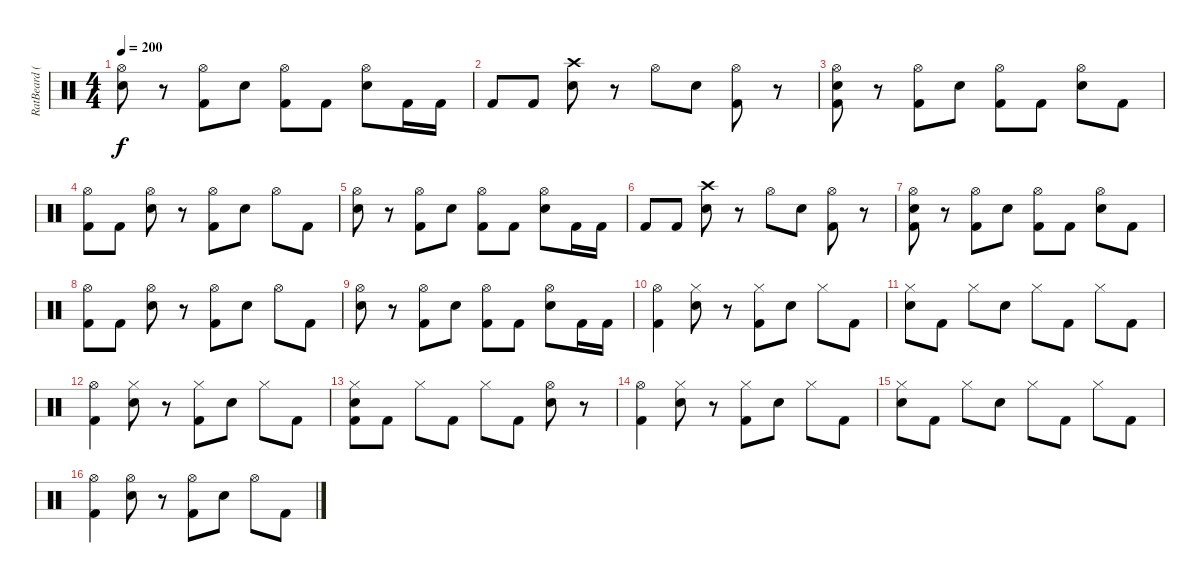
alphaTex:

\track ("RatBeard (Drum)" "RatBeard (") {instrument percussion}
\staff {score}
\articulation defaults
\ts (4 4)
\tempo 200
\clef neutral
\ks c
("Hi-Hat (open)" "Electric Snare (hit)").8{dy f} r.8 ("Hi-Hat (open)" "Kick (hit) 2").8 "Electric Snare (hit)".8 ("Hi-Hat (open)" "Kick (hit) 2").8 "Kick (hit) 2".8 ("Hi-Hat (open)" "Electric Snare (hit)").8 "Kick (hit) 2".16 "Kick (hit) 2".16 |
"Kick (hit) 2".8 "Kick (hit) 2".8 ("Crash high (hit)" "Electric Snare (hit)").8 r.8 "Hi-Hat (open)".8 "Electric Snare (hit)".8 ("Hi-Hat (open)" "Kick (hit) 2").8 r.8 |
("Hi-Hat (open)" "Electric Snare (hit)" "Kick (hit) 2").8 r.8 ("Hi-Hat (open)" "Kick (hit) 2").8 "Electric Snare (hit)".8 ("Hi-Hat (open)" "Kick (hit) 2").8 "Kick (hit) 2".8 ("Hi-Hat (open)" "Electric Snare (hit)").8 "Kick (hit) 2".8 |
("Hi-Hat (open)" "Kick (hit) 2").8 "Kick (hit) 2".8 ("Hi-Hat (open)" "Electric Snare (hit)").8 r.8 ("Hi-Hat (open)" "Kick (hit) 2").8 "Electric Snare (hit)".8 "Hi-Hat (open)".8 "Kick (hit) 2".8 |
("Hi-Hat (open)" "Electric Snare (hit)").8 r.8 ("Hi-Hat (open)" "Kick (hit) 2").8 "Electric Snare (hit)".8 ("Hi-Hat (open)" "Kick (hit) 2").8 "Kick (hit) 2".8 ("Hi-Hat (open)" "Electric Snare (hit)").8 "Kick (hit) 2".16 "Kick (hit) 2".16 |
"Kick (hit) 2".8 "Kick (hit) 2".8 ("Crash high (hit)" "Electric Snare (hit)").8 r.8 "Hi-Hat (open)".8 "Electric Snare (hit)".8 ("Hi-Hat (open)" "Kick (hit) 2").8 r.8 |
("Hi-Hat (open)" "Electric Snare (hit)" "Kick (hit) 2").8 r.8 ("Hi-Hat (open)" "Kick (hit) 2").8 "Electric Snare (hit)".8 ("Hi-Hat (open)" "Kick (hit) 2").8 "Kick (hit) 2".8 ("Hi-Hat (open)" "Electric Snare (hit)").8 "Kick (hit) 2".8 |
("Hi-Hat (open)" "Kick (hit) 2").8 "Kick (hit) 2".8 ("Hi-Hat (open)" "Electric Snare (hit)").8 r.8 ("Hi-Hat (open)" "Kick (hit) 2").8 "Electric Snare (hit)".8 "Hi-Hat (open)".8 "Kick (hit) 2".8 |
("Hi-Hat (open)" "Electric Snare (hit)").8 r.8 ("Hi-Hat (open)" "Kick (hit) 2").8 "Electric Snare (hit)".8 ("Hi-Hat (open)" "Kick (hit) 2").8 "Kick (hit) 2".8 ("Hi-Hat (open)" "Electric Snare (hit)").8 "Kick (hit) 2".16 "Kick (hit) 2".16 |
("Hi-Hat (open)" "Kick (hit) 2").4 ("Hi-Hat (closed)" "Electric Snare (hit)").8 r.8 ("Hi-Hat (closed)" "Kick (hit) 2").8 "Electric Snare (hit)".8 "Hi-Hat (closed)".8 "Kick (hit) 2".8 |
("Hi-Hat (closed)" "Electric Snare (hit)").8 "Kick (hit) 2".8 "Hi-Hat (closed)".8 "Electric Snare (hit)".8 "Hi-Hat (closed)".8 "Kick (hit) 2".8 "Hi-Hat (closed)".8 "Kick (hit) 2".8 |
("Hi-Hat (open)" "Kick (hit) 2").4 ("Hi-Hat (closed)" "Electric Snare (hit)").8 r.8 ("Hi-Hat (closed)" "Kick (hit) 2").8 "Electric Snare (hit)".8 "Hi-Hat (closed)".8 "Kick (hit) 2".8 |
("Hi-Hat (closed)" "Electric Snare (hit)" "Kick (hit) 2").8 "Kick (hit) 2".8 "Hi-Hat (closed)".8 "Kick (hit) 2".8 "Hi-Hat (closed)".8 "Kick (hit) 2".8 ("Hi-Hat (open)" "Electric Snare (hit)").8 r.8 |
("Hi-Hat (open)" "Kick (hit) 2").4 ("Hi-Hat (closed)" "Electric Snare (hit)").8 r.8 ("Hi-Hat (closed)" "Kick (hit) 2").8 "Electric Snare (hit)".8 "Hi-Hat (closed)".8 "Kick (hit) 2".8 |
("Hi-Hat (closed)" "Electric Snare (hit)").8 "Kick (hit) 2".8 "Hi-Hat (closed)".8 "Electric Snare (hit)".8 "Hi-Hat (closed)".8 "Kick (hit) 2".8 "Hi-Hat (closed)".8 "Kick (hit) 2".8 |
("Hi-Hat (open)" "Kick (hit) 2").4 ("Hi-Hat (open)" "Electric Snare (hit)").8 r.8 ("Hi-Hat (open)" "Kick (hit) 2").8 "Electric Snare (hit)".8 "Hi-Hat (open)".8 "Kick (hit) 2".8
